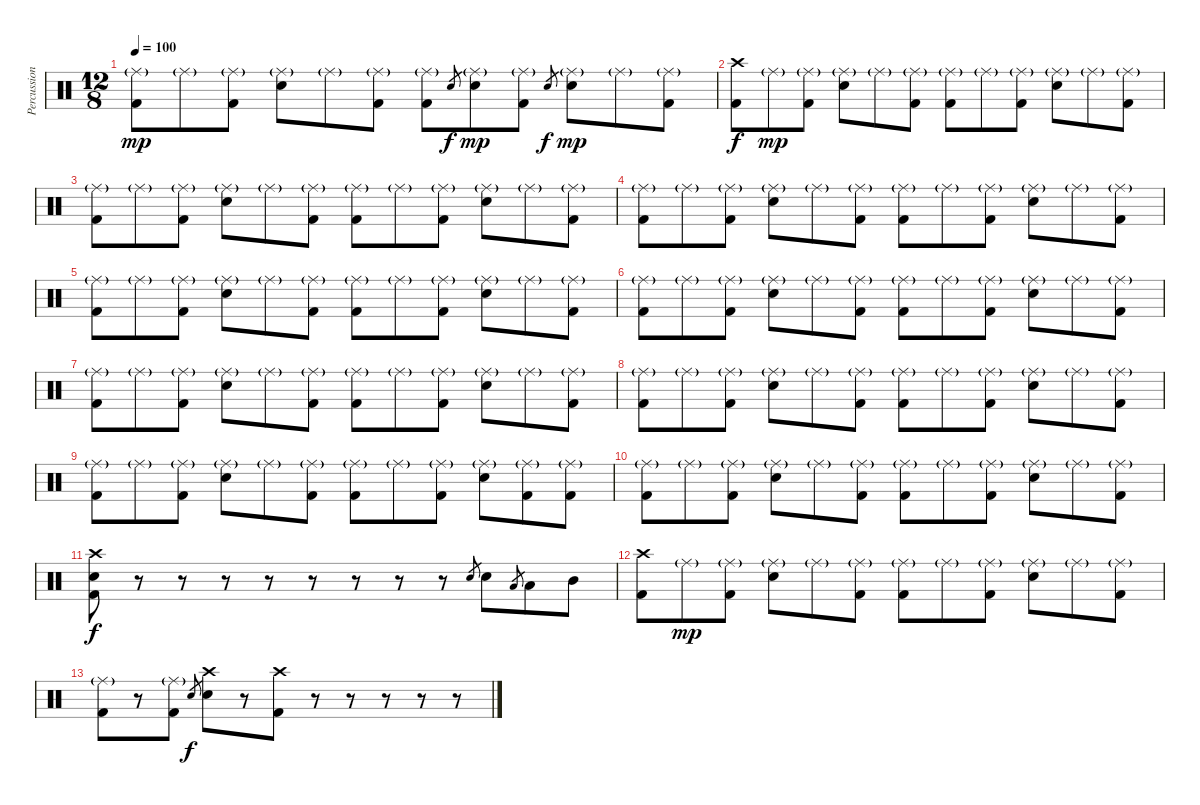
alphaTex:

\track ("Percussion" "Percussion") {instrument percussion}
\staff {score}
\articulation defaults
\ts (12 8)
\tempo 100
\clef neutral
\ks c
("Ride (middle)"{g} "Kick (hit) 2").8{dy mp} "Ride (middle)"{g}.8 ("Ride (middle)"{g} "Kick (hit) 2").8 ("Ride (middle)"{g} "Electric Snare (hit)").8 "Ride (middle)"{g}.8 ("Ride (middle)"{g} "Kick (hit) 2").8 ("Ride (middle)"{g} "Kick (hit) 2").8 "Electric Snare (hit)".8{gr dy f} ("Ride (middle)"{g} "Electric Snare (hit)").8{dy mp} ("Ride (middle)"{g} "Kick (hit) 2").8 "Electric Snare (hit)".8{gr dy f} ("Ride (middle)"{g} "Electric Snare (hit)").8{dy mp} "Ride (middle)"{g}.8 ("Ride (middle)"{g} "Kick (hit) 2").8 |
("Crash high (hit)" "Kick (hit) 2").8{dy f} "Ride (middle)"{g}.8{dy mp} ("Ride (middle)"{g} "Kick (hit) 2").8 ("Ride (middle)"{g} "Electric Snare (hit)").8 "Ride (middle)"{g}.8 ("Ride (middle)"{g} "Kick (hit) 2").8 ("Ride (middle)"{g} "Kick (hit) 2").8 "Ride (middle)"{g}.8 ("Ride (middle)"{g} "Kick (hit) 2").8 ("Ride (middle)"{g} "Electric Snare (hit)").8 "Ride (middle)"{g}.8 ("Ride (middle)"{g} "Kick (hit) 2").8 |
("Ride (middle)"{g} "Kick (hit) 2").8 "Ride (middle)"{g}.8 ("Ride (middle)"{g} "Kick (hit) 2").8 ("Ride (middle)"{g} "Electric Snare (hit)").8 "Ride (middle)"{g}.8 ("Ride (middle)"{g} "Kick (hit) 2").8 ("Ride (middle)"{g} "Kick (hit) 2").8 "Ride (middle)"{g}.8 ("Ride (middle)"{g} "Kick (hit) 2").8 ("Ride (middle)"{g} "Electric Snare (hit)").8 "Ride (middle)"{g}.8 ("Ride (middle)"{g} "Kick (hit) 2").8 |
("Ride (middle)"{g} "Kick (hit) 2").8 "Ride (middle)"{g}.8 ("Ride (middle)"{g} "Kick (hit) 2").8 ("Ride (middle)"{g} "Electric Snare (hit)").8 "Ride (middle)"{g}.8 ("Ride (middle)"{g} "Kick (hit) 2").8 ("Ride (middle)"{g} "Kick (hit) 2").8 "Ride (middle)"{g}.8 ("Ride (middle)"{g} "Kick (hit) 2").8 ("Ride (middle)"{g} "Electric Snare (hit)").8 "Ride (middle)"{g}.8 ("Ride (middle)"{g} "Kick (hit) 2").8 |
("Ride (middle)"{g} "Kick (hit) 2").8 "Ride (middle)"{g}.8 ("Ride (middle)"{g} "Kick (hit) 2").8 ("Ride (middle)"{g} "Electric Snare (hit)").8 "Ride (middle)"{g}.8 ("Ride (middle)"{g} "Kick (hit) 2").8 ("Ride (middle)"{g} "Kick (hit) 2").8 "Ride (middle)"{g}.8 ("Ride (middle)"{g} "Kick (hit) 2").8 ("Ride (middle)"{g} "Electric Snare (hit)").8 "Ride (middle)"{g}.8 ("Ride (middle)"{g} "Kick (hit) 2").8 |
("Ride (middle)"{g} "Kick (hit) 2").8 "Ride (middle)"{g}.8 ("Ride (middle)"{g} "Kick (hit) 2").8 ("Ride (middle)"{g} "Electric Snare (hit)").8 "Ride (middle)"{g}.8 ("Ride (middle)"{g} "Kick (hit) 2").8 ("Ride (middle)"{g} "Kick (hit) 2").8 "Ride (middle)"{g}.8 ("Ride (middle)"{g} "Kick (hit) 2").8 ("Ride (middle)"{g} "Electric Snare (hit)").8 "Ride (middle)"{g}.8 ("Ride (middle)"{g} "Kick (hit) 2").8 |
("Ride (middle)"{g} "Kick (hit) 2").8 "Ride (middle)"{g}.8 ("Ride (middle)"{g} "Kick (hit) 2").8 ("Ride (middle)"{g} "Electric Snare (hit)").8 "Ride (middle)"{g}.8 ("Ride (middle)"{g} "Kick (hit) 2").8 ("Ride (middle)"{g} "Kick (hit) 2").8 "Ride (middle)"{g}.8 ("Ride (middle)"{g} "Kick (hit) 2").8 ("Ride (middle)"{g} "Electric Snare (hit)").8 "Ride (middle)"{g}.8 ("Ride (middle)"{g} "Kick (hit) 2").8 |
("Ride (middle)"{g} "Kick (hit) 2").8 "Ride (middle)"{g}.8 ("Ride (middle)"{g} "Kick (hit) 2").8 ("Ride (middle)"{g} "Electric Snare (hit)").8 "Ride (middle)"{g}.8 ("Ride (middle)"{g} "Kick (hit) 2").8 ("Ride (middle)"{g} "Kick (hit) 2").8 "Ride (middle)"{g}.8 ("Ride (middle)"{g} "Kick (hit) 2").8 ("Ride (middle)"{g} "Electric Snare (hit)").8 "Ride (middle)"{g}.8 ("Ride (middle)"{g} "Kick (hit) 2").8 |
("Ride (middle)"{g} "Kick (hit) 2").8 "Ride (middle)"{g}.8 ("Ride (middle)"{g} "Kick (hit) 2").8 ("Ride (middle)"{g} "Electric Snare (hit)").8 "Ride (middle)"{g}.8 ("Ride (middle)"{g} "Kick (hit) 2").8 ("Ride (middle)"{g} "Kick (hit) 2").8 "Ride (middle)"{g}.8 ("Ride (middle)"{g} "Kick (hit) 2").8 ("Ride (middle)"{g} "Electric Snare (hit)").8 ("Ride (middle)"{g} "Kick (hit) 2").8 ("Ride (middle)"{g} "Kick (hit) 2").8 |
("Ride (middle)"{g} "Kick (hit) 2").8 "Ride (middle)"{g}.8 ("Ride (middle)"{g} "Kick (hit) 2").8 ("Ride (middle)"{g} "Electric Snare (hit)").8 "Ride (middle)"{g}.8 ("Ride (middle)"{g} "Kick (hit) 2").8 ("Ride (middle)"{g} "Kick (hit) 2").8 "Ride (middle)"{g}.8 ("Ride (middle)"{g} "Kick (hit) 2").8 ("Ride (middle)"{g} "Electric Snare (hit)").8 "Ride (middle)"{g}.8 ("Ride (middle)"{g} "Kick (hit) 2").8 |
("Crash high (hit)" "Electric Snare (hit)" "Kick (hit) 2").8{dy f} r.8 r.8 r.8 r.8 r.8 r.8 r.8 r.8 "Electric Snare (hit)".8{gr} "Electric Snare (hit)".8 "Low Tom (hit)".8{gr} "Low Tom (hit)".8 "Mid Tom (hit)".8 |
("Crash high (hit)" "Kick (hit) 2").8 "Ride (middle)"{g}.8{dy mp} ("Ride (middle)"{g} "Kick (hit) 2").8 ("Ride (middle)"{g} "Electric Snare (hit)").8 "Ride (middle)"{g}.8 ("Ride (middle)"{g} "Kick (hit) 2").8 ("Ride (middle)"{g} "Kick (hit) 2").8 "Ride (middle)"{g}.8 ("Ride (middle)"{g} "Kick (hit) 2").8 ("Ride (middle)"{g} "Electric Snare (hit)").8 "Ride (middle)"{g}.8 ("Ride (middle)"{g} "Kick (hit) 2").8 |
("Ride (middle)"{g} "Kick (hit) 2").8 r.8 ("Ride (middle)"{g} "Kick (hit) 2").8 "Electric Snare (hit)".8{gr dy f} ("Crash high (hit)" "Electric Snare (hit)").8 r.8 ("Crash high (hit)" "Kick (hit) 2").8 r.8 r.8 r.8 r.8 r.8
